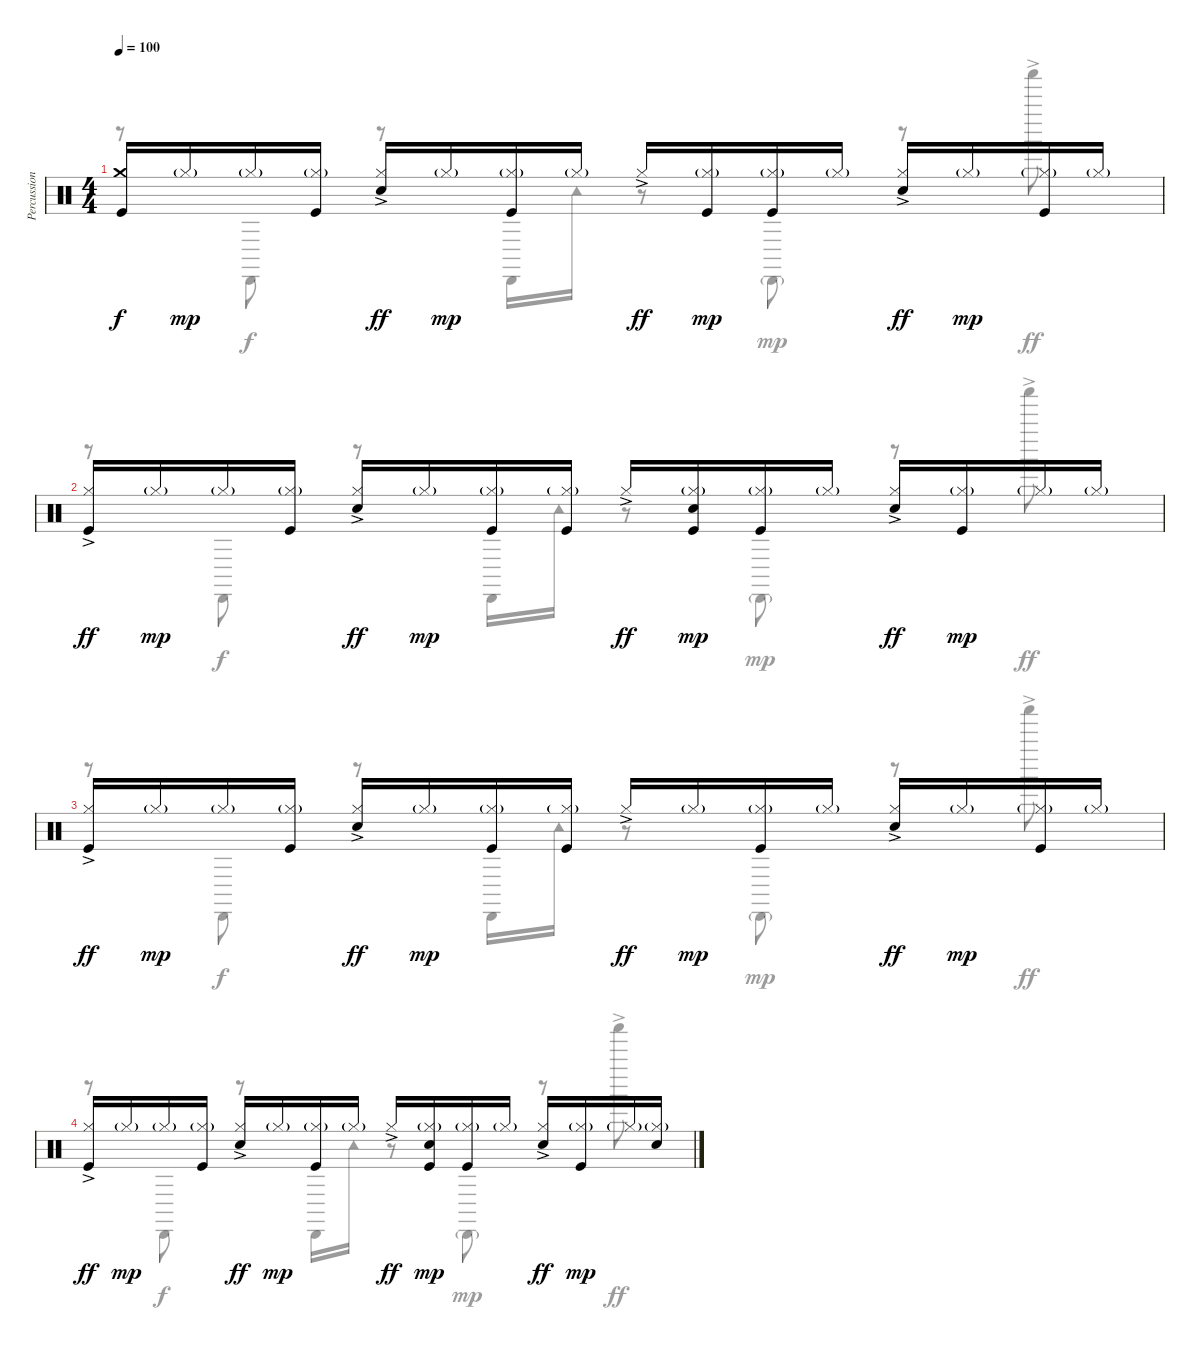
\track ("Percussions" "Percussion") {instrument percussion}
\staff {score}
\articulation defaults
\voice
\ts (4 4)
\tempo 100
\clef neutral
\ks c
("Kick (hit)" "Crash medium (hit)").16{dy f} "Hi-Hat (closed)"{g}.16{dy mp} "Hi-Hat (closed)"{g}.16 ("Kick (hit)" "Hi-Hat (closed)"{g}).16 ("Electric Snare (hit)" "Hi-Hat (closed)"{ac}).16{dy ff} "Hi-Hat (closed)"{g}.16{dy mp} ("Kick (hit)" "Hi-Hat (closed)"{g}).16 "Hi-Hat (closed)"{g}.16 "Hi-Hat (closed)"{ac}.16{dy ff} ("Kick (hit)" "Hi-Hat (closed)"{g}).16{dy mp} ("Kick (hit)" "Hi-Hat (closed)"{g}).16 "Hi-Hat (closed)"{g}.16 ("Snare (hit) 2" "Hi-Hat (closed)"{ac}).16{dy ff} "Hi-Hat (closed)"{g}.16{dy mp} ("Kick (hit)" "Hi-Hat (closed)"{g}).16 "Hi-Hat (closed)"{g}.16 |
("Kick (hit)" "Hi-Hat (closed)"{ac}).16{dy ff} "Hi-Hat (closed)"{g}.16{dy mp} "Hi-Hat (closed)"{g}.16 ("Kick (hit)" "Hi-Hat (closed)"{g}).16 ("Electric Snare (hit)" "Hi-Hat (closed)"{ac}).16{dy ff} "Hi-Hat (closed)"{g}.16{dy mp} ("Kick (hit)" "Hi-Hat (closed)"{g}).16 ("Kick (hit)" "Hi-Hat (closed)"{g}).16 "Hi-Hat (closed)"{ac}.16{dy ff} ("Kick (hit)" "Electric Snare (hit)" "Hi-Hat (closed)"{g}).16{dy mp} ("Kick (hit)" "Hi-Hat (closed)"{g}).16 "Hi-Hat (closed)"{g}.16 ("Snare (hit) 2" "Hi-Hat (closed)"{ac}).16{dy ff} ("Kick (hit)" "Hi-Hat (closed)"{g}).16{dy mp} "Hi-Hat (closed)"{g}.16 "Hi-Hat (closed)"{g}.16 |
("Kick (hit)" "Hi-Hat (closed)"{ac}).16{dy ff} "Hi-Hat (closed)"{g}.16{dy mp} "Hi-Hat (closed)"{g}.16 ("Kick (hit)" "Hi-Hat (closed)"{g}).16 ("Electric Snare (hit)" "Hi-Hat (closed)"{ac}).16{dy ff} "Hi-Hat (closed)"{g}.16{dy mp} ("Kick (hit)" "Hi-Hat (closed)"{g}).16 ("Kick (hit)" "Hi-Hat (closed)"{g}).16 "Hi-Hat (closed)"{ac}.16{dy ff} "Hi-Hat (closed)"{g}.16{dy mp} ("Kick (hit)" "Hi-Hat (closed)"{g}).16 "Hi-Hat (closed)"{g}.16 ("Snare (hit) 2" "Hi-Hat (closed)"{ac}).16{dy ff} "Hi-Hat (closed)"{g}.16{dy mp} ("Kick (hit)" "Hi-Hat (closed)"{g}).16 "Hi-Hat (closed)"{g}.16 |
("Kick (hit)" "Hi-Hat (closed)"{ac}).16{dy ff} "Hi-Hat (closed)"{g}.16{dy mp} "Hi-Hat (closed)"{g}.16 ("Kick (hit)" "Hi-Hat (closed)"{g}).16 ("Electric Snare (hit)" "Hi-Hat (closed)"{ac}).16{dy ff} "Hi-Hat (closed)"{g}.16{dy mp} ("Kick (hit)" "Hi-Hat (closed)"{g}).16 "Hi-Hat (closed)"{g}.16 "Hi-Hat (closed)"{ac}.16{dy ff} ("Kick (hit)" "Electric Snare (hit)" "Hi-Hat (closed)"{g}).16{dy mp} ("Kick (hit)" "Hi-Hat (closed)"{g}).16 "Hi-Hat (closed)"{g}.16 ("Snare (hit) 2" "Hi-Hat (closed)"{ac}).16{dy ff} ("Kick (hit)" "Hi-Hat (closed)"{g}).16{dy mp} "Hi-Hat (closed)"{g}.16 ("Electric Snare (hit)" "Hi-Hat (closed)"{g}).16
\voice
\clef neutral
\ottava regular
\simile none
\ks c
r.8{dy ff} "Cabasa (hit)".8{dy f} r.8 "Cabasa (hit)".16 "Tambourine (hit)".16 r.8 "Cabasa (hit)"{g}.8{dy mp} r.8 "Shaker (hit)"{ac}.8{dy ff} |
r.8 "Cabasa (hit)".8{dy f} r.8 "Cabasa (hit)".16 "Tambourine (hit)".16 r.8 "Cabasa (hit)"{g}.8{dy mp} r.8 "Shaker (hit)"{ac}.8{dy ff} |
r.8 "Cabasa (hit)".8{dy f} r.8 "Cabasa (hit)".16 "Tambourine (hit)".16 r.8 "Cabasa (hit)"{g}.8{dy mp} r.8 "Shaker (hit)"{ac}.8{dy ff} |
r.8 "Cabasa (hit)".8{dy f} r.8 "Cabasa (hit)".16 "Tambourine (hit)".16 r.8 "Cabasa (hit)"{g}.8{dy mp} r.8 "Shaker (hit)"{ac}.8{dy ff}
